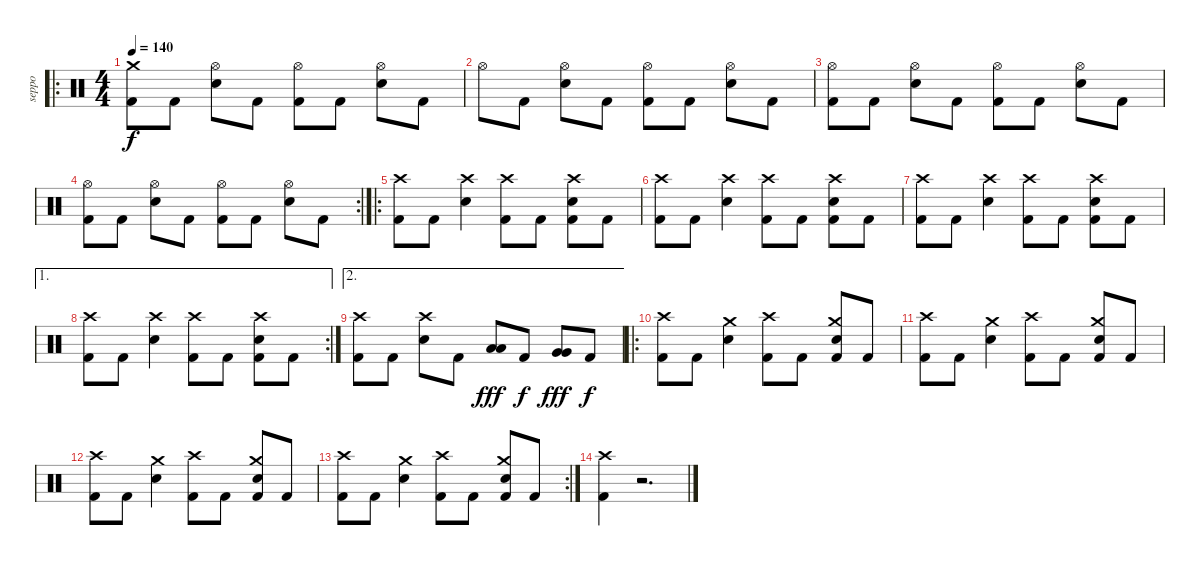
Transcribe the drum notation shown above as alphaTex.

\track ("seppo" "seppo") {instrument percussion}
\staff {score}
\articulation defaults
\ro
\ts (4 4)
\tempo 140
\clef neutral
\ks c
("Kick (hit) 2" "Crash medium (hit)").8{dy f} "Kick (hit) 2".8 ("Hi-Hat (open)" "Snare (hit) 2").8 "Kick (hit) 2".8 ("Kick (hit) 2" "Hi-Hat (open)").8 "Kick (hit) 2".8 ("Hi-Hat (open)" "Snare (hit) 2").8 "Kick (hit) 2".8 |
"Hi-Hat (open)".8 "Kick (hit) 2".8 ("Hi-Hat (open)" "Snare (hit) 2").8 "Kick (hit) 2".8 ("Kick (hit) 2" "Hi-Hat (open)").8 "Kick (hit) 2".8 ("Hi-Hat (open)" "Snare (hit) 2").8 "Kick (hit) 2".8 |
("Kick (hit) 2" "Hi-Hat (open)").8 "Kick (hit) 2".8 ("Hi-Hat (open)" "Snare (hit) 2").8 "Kick (hit) 2".8 ("Kick (hit) 2" "Hi-Hat (open)").8 "Kick (hit) 2".8 ("Hi-Hat (open)" "Snare (hit) 2").8 "Kick (hit) 2".8 |
\rc 2
("Kick (hit) 2" "Hi-Hat (open)").8 "Kick (hit) 2".8 ("Hi-Hat (open)" "Snare (hit) 2").8 "Kick (hit) 2".8 ("Kick (hit) 2" "Hi-Hat (open)").8 "Kick (hit) 2".8 ("Hi-Hat (open)" "Snare (hit) 2").8 "Kick (hit) 2".8 |
\ro
("Kick (hit) 2" "Crash high (hit)").8 "Kick (hit) 2".8 ("Crash high (hit)" "Snare (hit) 2").4 ("Kick (hit) 2" "Crash high (hit)").8 "Kick (hit) 2".8 ("Kick (hit) 2" "Crash high (hit)" "Snare (hit) 2").8 "Kick (hit) 2".8 |
("Kick (hit) 2" "Crash high (hit)").8 "Kick (hit) 2".8 ("Crash high (hit)" "Snare (hit) 2").4 ("Kick (hit) 2" "Crash high (hit)").8 "Kick (hit) 2".8 ("Kick (hit) 2" "Crash high (hit)" "Snare (hit) 2").8 "Kick (hit) 2".8 |
("Kick (hit) 2" "Crash high (hit)").8 "Kick (hit) 2".8 ("Crash high (hit)" "Snare (hit) 2").4 ("Kick (hit) 2" "Crash high (hit)").8 "Kick (hit) 2".8 ("Kick (hit) 2" "Crash high (hit)" "Snare (hit) 2").8 "Kick (hit) 2".8 |
\ae 1
\rc 2
("Kick (hit) 2" "Crash high (hit)").8 "Kick (hit) 2".8 ("Crash high (hit)" "Snare (hit) 2").4 ("Kick (hit) 2" "Crash high (hit)").8 "Kick (hit) 2".8 ("Kick (hit) 2" "Crash high (hit)" "Snare (hit) 2").8 "Kick (hit) 2".8 |
\ae 2
("Kick (hit) 2" "Crash high (hit)").8 "Kick (hit) 2".8 ("Crash high (hit)" "Snare (hit) 2").8 "Kick (hit) 2".8 ("Low Tom (hit)" "Low Tom (hit)").8{dy fff} "Kick (hit) 2".8{dy f} ("Very Low Tom (hit)" "Very Low Tom (hit)").8{dy fff} "Kick (hit) 2".8{dy f} |
\ro
("Kick (hit) 2" "Crash high (hit)").8 "Kick (hit) 2".8 ("Crash medium (hit)" "Snare (hit) 2").4 ("Kick (hit) 2" "Crash high (hit)").8 "Kick (hit) 2".8 ("Kick (hit) 2" "Crash medium (hit)" "Snare (hit) 2").8 "Kick (hit) 2".8 |
("Kick (hit) 2" "Crash high (hit)").8 "Kick (hit) 2".8 ("Crash medium (hit)" "Snare (hit) 2").4 ("Kick (hit) 2" "Crash high (hit)").8 "Kick (hit) 2".8 ("Kick (hit) 2" "Crash medium (hit)" "Snare (hit) 2").8 "Kick (hit) 2".8 |
("Kick (hit) 2" "Crash high (hit)").8 "Kick (hit) 2".8 ("Crash medium (hit)" "Snare (hit) 2").4 ("Kick (hit) 2" "Crash high (hit)").8 "Kick (hit) 2".8 ("Kick (hit) 2" "Crash medium (hit)" "Snare (hit) 2").8 "Kick (hit) 2".8 |
\rc 2
("Kick (hit) 2" "Crash high (hit)").8 "Kick (hit) 2".8 ("Crash medium (hit)" "Snare (hit) 2").4 ("Kick (hit) 2" "Crash high (hit)").8 "Kick (hit) 2".8 ("Kick (hit) 2" "Crash medium (hit)" "Snare (hit) 2").8 "Kick (hit) 2".8 |
("Kick (hit) 2" "Crash high (hit)").4 r.2{d}
